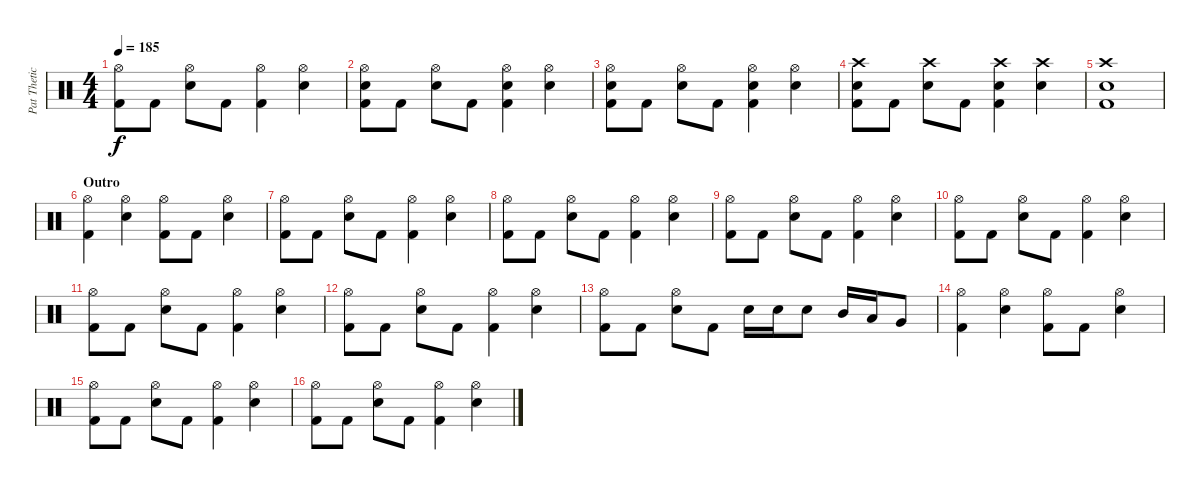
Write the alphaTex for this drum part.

\track ("Pat Thetic" "Pat Thetic") {instrument percussion}
\staff {score}
\articulation defaults
\ts (4 4)
\tempo 185
\clef neutral
\ks c
("Hi-Hat (open)" "Kick (hit) 2").8{dy f} "Kick (hit) 2".8 ("Hi-Hat (open)" "Electric Snare (hit)").8 "Kick (hit) 2".8 ("Hi-Hat (open)" "Kick (hit) 2").4 ("Hi-Hat (open)" "Electric Snare (hit)").4 |
("Hi-Hat (open)" "Electric Snare (hit)" "Kick (hit) 2").8 "Kick (hit) 2".8 ("Hi-Hat (open)" "Electric Snare (hit)").8 "Kick (hit) 2".8 ("Hi-Hat (open)" "Electric Snare (hit)" "Kick (hit) 2").4 ("Hi-Hat (open)" "Electric Snare (hit)").4 |
("Hi-Hat (open)" "Electric Snare (hit)" "Kick (hit) 2").8 "Kick (hit) 2".8 ("Hi-Hat (open)" "Electric Snare (hit)").8 "Kick (hit) 2".8 ("Hi-Hat (open)" "Electric Snare (hit)" "Kick (hit) 2").4 ("Hi-Hat (open)" "Electric Snare (hit)").4 |
("Crash high (hit)" "Electric Snare (hit)" "Kick (hit) 2").8 "Kick (hit) 2".8 ("Crash high (hit)" "Electric Snare (hit)").8 "Kick (hit) 2".8 ("Crash high (hit)" "Electric Snare (hit)" "Kick (hit) 2").4 ("Crash high (hit)" "Electric Snare (hit)").4 |
("Crash high (hit)" "Electric Snare (hit)" "Kick (hit) 2").1 |
\section ("" "Outro")
("Hi-Hat (open)" "Kick (hit) 2").4 ("Hi-Hat (open)" "Electric Snare (hit)").4 ("Hi-Hat (open)" "Kick (hit) 2").8 "Kick (hit) 2".8 ("Hi-Hat (open)" "Electric Snare (hit)").4 |
("Hi-Hat (open)" "Kick (hit) 2").8 "Kick (hit) 2".8 ("Hi-Hat (open)" "Electric Snare (hit)").8 "Kick (hit) 2".8 ("Hi-Hat (open)" "Kick (hit) 2").4 ("Hi-Hat (open)" "Electric Snare (hit)").4 |
("Hi-Hat (open)" "Kick (hit) 2").8 "Kick (hit) 2".8 ("Hi-Hat (open)" "Electric Snare (hit)").8 "Kick (hit) 2".8 ("Hi-Hat (open)" "Kick (hit) 2").4 ("Hi-Hat (open)" "Electric Snare (hit)").4 |
("Hi-Hat (open)" "Kick (hit) 2").8 "Kick (hit) 2".8 ("Hi-Hat (open)" "Electric Snare (hit)").8 "Kick (hit) 2".8 ("Hi-Hat (open)" "Kick (hit) 2").4 ("Hi-Hat (open)" "Electric Snare (hit)").4 |
("Hi-Hat (open)" "Kick (hit) 2").8 "Kick (hit) 2".8 ("Hi-Hat (open)" "Electric Snare (hit)").8 "Kick (hit) 2".8 ("Hi-Hat (open)" "Kick (hit) 2").4 ("Hi-Hat (open)" "Electric Snare (hit)").4 |
("Hi-Hat (open)" "Kick (hit) 2").8 "Kick (hit) 2".8 ("Hi-Hat (open)" "Electric Snare (hit)").8 "Kick (hit) 2".8 ("Hi-Hat (open)" "Kick (hit) 2").4 ("Hi-Hat (open)" "Electric Snare (hit)").4 |
("Hi-Hat (open)" "Kick (hit) 2").8 "Kick (hit) 2".8 ("Hi-Hat (open)" "Electric Snare (hit)").8 "Kick (hit) 2".8 ("Hi-Hat (open)" "Kick (hit) 2").4 ("Hi-Hat (open)" "Electric Snare (hit)").4 |
("Hi-Hat (open)" "Kick (hit) 2").8 "Kick (hit) 2".8 ("Hi-Hat (open)" "Electric Snare (hit)").8 "Kick (hit) 2".8 "Electric Snare (hit)".16 "Electric Snare (hit)".16 "Electric Snare (hit)".8 "Mid Tom (hit)".16 "Low Tom (hit)".16 "Very Low Tom (hit)".8 |
("Hi-Hat (open)" "Kick (hit) 2").4 ("Hi-Hat (open)" "Electric Snare (hit)").4 ("Hi-Hat (open)" "Kick (hit) 2").8 "Kick (hit) 2".8 ("Hi-Hat (open)" "Electric Snare (hit)").4 |
("Hi-Hat (open)" "Kick (hit) 2").8 "Kick (hit) 2".8 ("Hi-Hat (open)" "Electric Snare (hit)").8 "Kick (hit) 2".8 ("Hi-Hat (open)" "Kick (hit) 2").4 ("Hi-Hat (open)" "Electric Snare (hit)").4 |
("Hi-Hat (open)" "Kick (hit) 2").8 "Kick (hit) 2".8 ("Hi-Hat (open)" "Electric Snare (hit)").8 "Kick (hit) 2".8 ("Hi-Hat (open)" "Kick (hit) 2").4 ("Hi-Hat (open)" "Electric Snare (hit)").4
